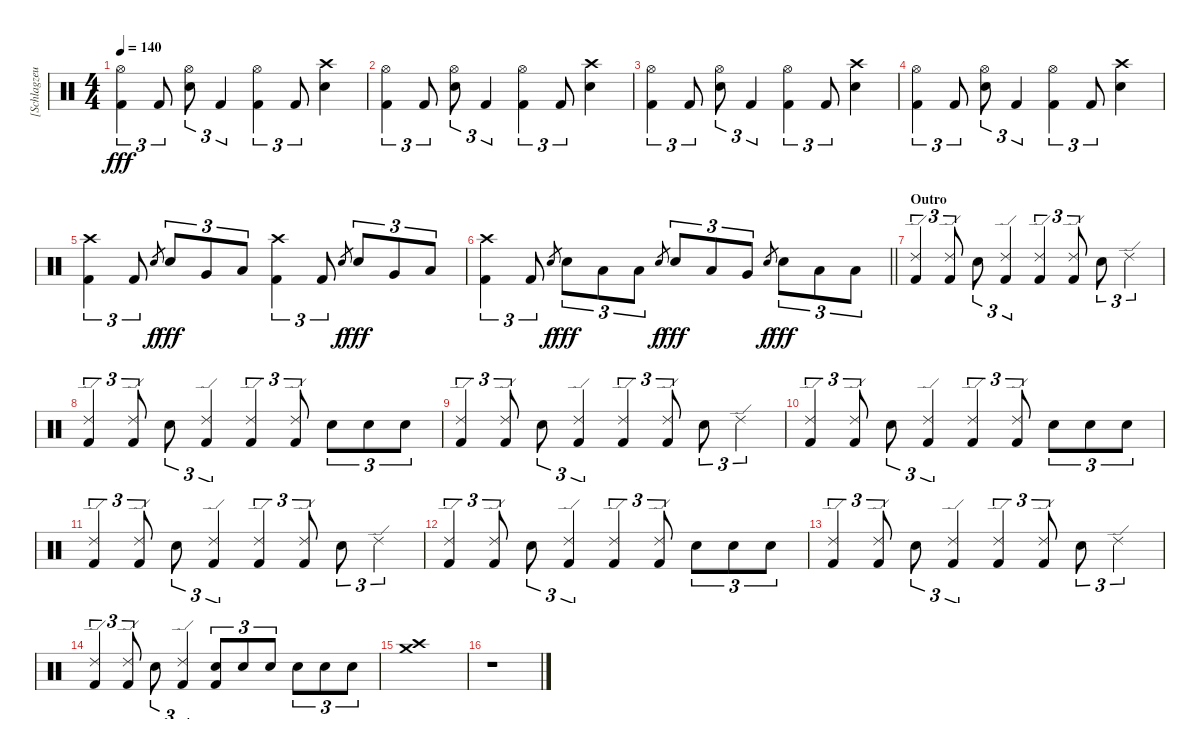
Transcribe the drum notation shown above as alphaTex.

\track ("[Schlagzeug]" "[Schlagzeu") {instrument percussion}
\staff {score}
\articulation defaults
\ts (4 4)
\tempo 140
\clef neutral
\ks c
("Hi-Hat (open)" "Kick (hit) 2").4{tu (3 2) dy fff} "Kick (hit) 2".8{tu (3 2)} ("Hi-Hat (open)" "Electric Snare (hit)").8{tu (3 2)} "Kick (hit) 2".4{tu (3 2)} ("Hi-Hat (open)" "Kick (hit) 2").4{tu (3 2)} "Kick (hit) 2".8{tu (3 2)} ("Crash high (hit)" "Electric Snare (hit)").4 |
("Hi-Hat (open)" "Kick (hit) 2").4{tu (3 2)} "Kick (hit) 2".8{tu (3 2)} ("Hi-Hat (open)" "Electric Snare (hit)").8{tu (3 2)} "Kick (hit) 2".4{tu (3 2)} ("Hi-Hat (open)" "Kick (hit) 2").4{tu (3 2)} "Kick (hit) 2".8{tu (3 2)} ("Crash high (hit)" "Electric Snare (hit)").4 |
("Hi-Hat (open)" "Kick (hit) 2").4{tu (3 2)} "Kick (hit) 2".8{tu (3 2)} ("Hi-Hat (open)" "Electric Snare (hit)").8{tu (3 2)} "Kick (hit) 2".4{tu (3 2)} ("Hi-Hat (open)" "Kick (hit) 2").4{tu (3 2)} "Kick (hit) 2".8{tu (3 2)} ("Crash high (hit)" "Electric Snare (hit)").4 |
("Hi-Hat (open)" "Kick (hit) 2").4{tu (3 2)} "Kick (hit) 2".8{tu (3 2)} ("Hi-Hat (open)" "Electric Snare (hit)").8{tu (3 2)} "Kick (hit) 2".4{tu (3 2)} ("Hi-Hat (open)" "Kick (hit) 2").4{tu (3 2)} "Kick (hit) 2".8{tu (3 2)} ("Crash high (hit)" "Electric Snare (hit)").4 |
("Crash high (hit)" "Kick (hit) 2").4{tu (3 2)} "Kick (hit) 2".8{tu (3 2)} "Electric Snare (hit)".8{gr dy f} "Electric Snare (hit)".8{tu (3 2) dy fff} "Very Low Tom (hit)".8{tu (3 2)} "Low Floor Tom (hit)".8{tu (3 2)} ("Crash high (hit)" "Kick (hit) 2").4{tu (3 2)} "Kick (hit) 2".8{tu (3 2)} "Electric Snare (hit)".8{gr dy f} "Electric Snare (hit)".8{tu (3 2) dy fff} "Very Low Tom (hit)".8{tu (3 2)} "Low Floor Tom (hit)".8{tu (3 2)} |
\barLineRight lightlight
("Crash high (hit)" "Kick (hit) 2").4{tu (3 2)} "Kick (hit) 2".8{tu (3 2)} "Electric Snare (hit)".8{gr dy f} "Electric Snare (hit)".8{tu (3 2) dy fff} "Low Tom (hit)".8{tu (3 2)} "Low Tom (hit)".8{tu (3 2)} "Electric Snare (hit)".8{gr dy f} "Electric Snare (hit)".8{tu (3 2) dy fff} "Low Floor Tom (hit)".8{tu (3 2)} "Very Low Tom (hit)".8{tu (3 2)} "Electric Snare (hit)".8{gr dy f} "Electric Snare (hit)".8{tu (3 2) dy fff} "Low Floor Tom (hit)".8{tu (3 2)} "Low Floor Tom (hit)".8{tu (3 2)} |
\section ("" "Outro")
("Ride (edge) 2" "Kick (hit) 2").4{tu (3 2)} ("Ride (edge) 2" "Kick (hit) 2").8{tu (3 2)} "Electric Snare (hit)".8{tu (3 2)} ("Ride (edge) 2" "Kick (hit) 2").4{tu (3 2)} ("Ride (edge) 2" "Kick (hit) 2").4{tu (3 2)} ("Ride (edge) 2" "Kick (hit) 2").8{tu (3 2)} "Electric Snare (hit)".8{tu (3 2)} "Ride (edge) 2".4{tu (3 2)} |
("Ride (edge) 2" "Kick (hit) 2").4{tu (3 2)} ("Ride (edge) 2" "Kick (hit) 2").8{tu (3 2)} "Electric Snare (hit)".8{tu (3 2)} ("Ride (edge) 2" "Kick (hit) 2").4{tu (3 2)} ("Ride (edge) 2" "Kick (hit) 2").4{tu (3 2)} ("Ride (edge) 2" "Kick (hit) 2").8{tu (3 2)} "Electric Snare (hit)".8{tu (3 2)} "Electric Snare (hit)".8{tu (3 2)} "Electric Snare (hit)".8{tu (3 2)} |
("Ride (edge) 2" "Kick (hit) 2").4{tu (3 2)} ("Ride (edge) 2" "Kick (hit) 2").8{tu (3 2)} "Electric Snare (hit)".8{tu (3 2)} ("Ride (edge) 2" "Kick (hit) 2").4{tu (3 2)} ("Ride (edge) 2" "Kick (hit) 2").4{tu (3 2)} ("Ride (edge) 2" "Kick (hit) 2").8{tu (3 2)} "Electric Snare (hit)".8{tu (3 2)} "Ride (edge) 2".4{tu (3 2)} |
("Ride (edge) 2" "Kick (hit) 2").4{tu (3 2)} ("Ride (edge) 2" "Kick (hit) 2").8{tu (3 2)} "Electric Snare (hit)".8{tu (3 2)} ("Ride (edge) 2" "Kick (hit) 2").4{tu (3 2)} ("Ride (edge) 2" "Kick (hit) 2").4{tu (3 2)} ("Ride (edge) 2" "Kick (hit) 2").8{tu (3 2)} "Electric Snare (hit)".8{tu (3 2)} "Electric Snare (hit)".8{tu (3 2)} "Electric Snare (hit)".8{tu (3 2)} |
("Ride (edge) 2" "Kick (hit) 2").4{tu (3 2)} ("Ride (edge) 2" "Kick (hit) 2").8{tu (3 2)} "Electric Snare (hit)".8{tu (3 2)} ("Ride (edge) 2" "Kick (hit) 2").4{tu (3 2)} ("Ride (edge) 2" "Kick (hit) 2").4{tu (3 2)} ("Ride (edge) 2" "Kick (hit) 2").8{tu (3 2)} "Electric Snare (hit)".8{tu (3 2)} "Ride (edge) 2".4{tu (3 2)} |
("Ride (edge) 2" "Kick (hit) 2").4{tu (3 2)} ("Ride (edge) 2" "Kick (hit) 2").8{tu (3 2)} "Electric Snare (hit)".8{tu (3 2)} ("Ride (edge) 2" "Kick (hit) 2").4{tu (3 2)} ("Ride (edge) 2" "Kick (hit) 2").4{tu (3 2)} ("Ride (edge) 2" "Kick (hit) 2").8{tu (3 2)} "Electric Snare (hit)".8{tu (3 2)} "Electric Snare (hit)".8{tu (3 2)} "Electric Snare (hit)".8{tu (3 2)} |
("Ride (edge) 2" "Kick (hit) 2").4{tu (3 2)} ("Ride (edge) 2" "Kick (hit) 2").8{tu (3 2)} "Electric Snare (hit)".8{tu (3 2)} ("Ride (edge) 2" "Kick (hit) 2").4{tu (3 2)} ("Ride (edge) 2" "Kick (hit) 2").4{tu (3 2)} ("Ride (edge) 2" "Kick (hit) 2").8{tu (3 2)} "Electric Snare (hit)".8{tu (3 2)} "Ride (edge) 2".4{tu (3 2)} |
("Ride (edge) 2" "Kick (hit) 2").4{tu (3 2)} ("Ride (edge) 2" "Kick (hit) 2").8{tu (3 2)} "Electric Snare (hit)".8{tu (3 2)} ("Ride (edge) 2" "Kick (hit) 2").4{tu (3 2)} ("Electric Snare (hit)" "Kick (hit) 2").8{tu (3 2)} "Electric Snare (hit)".8{tu (3 2)} "Electric Snare (hit)".8{tu (3 2)} "Electric Snare (hit)".8{tu (3 2)} "Electric Snare (hit)".8{tu (3 2)} "Electric Snare (hit)".8{tu (3 2)} |
("Crash medium (hit)" "Crash high (hit)").1 |
r.1
